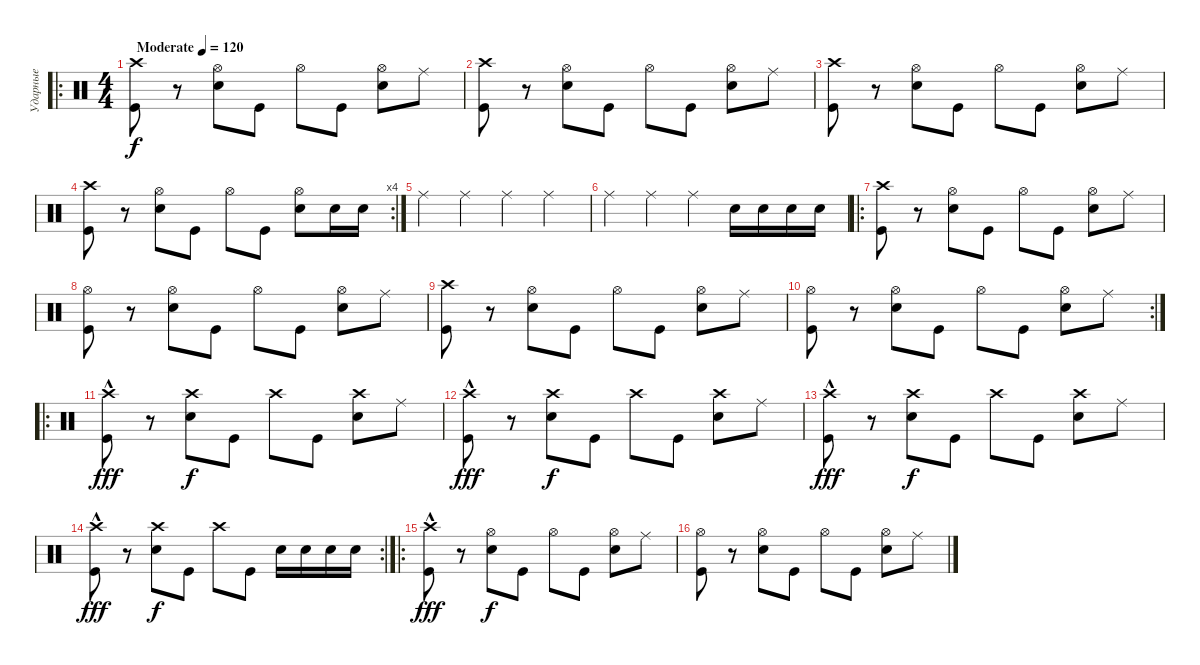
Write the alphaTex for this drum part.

\track ("Ударные" "Ударные") {instrument percussion}
\staff {score}
\articulation defaults
\ro
\ts (4 4)
\tempo (120 "Moderate")
\clef neutral
\ks c
("Kick (hit)" "Crash high (hit)").8{dy f} r.8 ("Snare (hit) 2" "Hi-Hat (open)").8 "Kick (hit)".8 "Hi-Hat (open)".8 "Kick (hit)".8 ("Snare (hit) 2" "Hi-Hat (open)").8 "Ride (middle)".8 |
("Kick (hit)" "Crash high (hit)").8 r.8 ("Snare (hit) 2" "Hi-Hat (open)").8 "Kick (hit)".8 "Hi-Hat (open)".8 "Kick (hit)".8 ("Snare (hit) 2" "Hi-Hat (open)").8 "Ride (middle)".8 |
("Kick (hit)" "Crash high (hit)").8 r.8 ("Snare (hit) 2" "Hi-Hat (open)").8 "Kick (hit)".8 "Hi-Hat (open)".8 "Kick (hit)".8 ("Snare (hit) 2" "Hi-Hat (open)").8 "Ride (middle)".8 |
\rc 4
("Kick (hit)" "Crash high (hit)").8 r.8 ("Snare (hit) 2" "Hi-Hat (open)").8 "Kick (hit)".8 "Hi-Hat (open)".8 "Kick (hit)".8 ("Snare (hit) 2" "Hi-Hat (open)").8 "Snare (hit) 2".16 "Snare (hit) 2".16 |
"Ride (middle)".4 "Ride (middle)".4 "Ride (middle)".4 "Ride (middle)".4 |
"Ride (middle)".4 "Ride (middle)".4 "Ride (middle)".4 "Snare (hit) 2".16 "Snare (hit) 2".16 "Snare (hit) 2".16 "Snare (hit) 2".16 |
\ro
("Kick (hit)" "Crash high (hit)").8 r.8 ("Snare (hit) 2" "Hi-Hat (open)").8 "Kick (hit)".8 "Hi-Hat (open)".8 "Kick (hit)".8 ("Snare (hit) 2" "Hi-Hat (open)").8 "Ride (middle)".8 |
("Kick (hit)" "Hi-Hat (open)").8 r.8 ("Snare (hit) 2" "Hi-Hat (open)").8 "Kick (hit)".8 "Hi-Hat (open)".8 "Kick (hit)".8 ("Snare (hit) 2" "Hi-Hat (open)").8 "Ride (middle)".8 |
("Kick (hit)" "Crash high (hit)").8 r.8 ("Snare (hit) 2" "Hi-Hat (open)").8 "Kick (hit)".8 "Hi-Hat (open)".8 "Kick (hit)".8 ("Snare (hit) 2" "Hi-Hat (open)").8 "Ride (middle)".8 |
\rc 2
("Kick (hit)" "Hi-Hat (open)").8 r.8 ("Snare (hit) 2" "Hi-Hat (open)").8 "Kick (hit)".8 "Hi-Hat (open)".8 "Kick (hit)".8 ("Snare (hit) 2" "Hi-Hat (open)").8 "Ride (middle)".8 |
\ro
("Kick (hit)" "Crash high (hit)"{hac}).8{dy fff} r.8 ("Snare (hit) 2" "Crash high (hit)").8{dy f} "Kick (hit)".8 "Crash high (hit)".8 "Kick (hit)".8 ("Snare (hit) 2" "Crash high (hit)").8 "Ride (middle)".8 |
("Kick (hit)" "Crash high (hit)"{hac}).8{dy fff} r.8 ("Snare (hit) 2" "Crash high (hit)").8{dy f} "Kick (hit)".8 "Crash high (hit)".8 "Kick (hit)".8 ("Snare (hit) 2" "Crash high (hit)").8 "Ride (middle)".8 |
("Kick (hit)" "Crash high (hit)"{hac}).8{dy fff} r.8 ("Snare (hit) 2" "Crash high (hit)").8{dy f} "Kick (hit)".8 "Crash high (hit)".8 "Kick (hit)".8 ("Snare (hit) 2" "Crash high (hit)").8 "Ride (middle)".8 |
\rc 2
("Kick (hit)" "Crash high (hit)"{hac}).8{dy fff} r.8 ("Snare (hit) 2" "Crash high (hit)").8{dy f} "Kick (hit)".8 "Crash high (hit)".8 "Kick (hit)".8 "Snare (hit) 2".16 "Snare (hit) 2".16 "Snare (hit) 2".16 "Snare (hit) 2".16 |
\ro
("Kick (hit)" "Crash high (hit)"{hac}).8{dy fff} r.8 ("Snare (hit) 2" "Hi-Hat (open)").8{dy f} "Kick (hit)".8 "Hi-Hat (open)".8 "Kick (hit)".8 ("Snare (hit) 2" "Hi-Hat (open)").8 "Ride (middle)".8 |
("Kick (hit)" "Hi-Hat (open)").8 r.8 ("Snare (hit) 2" "Hi-Hat (open)").8 "Kick (hit)".8 "Hi-Hat (open)".8 "Kick (hit)".8 ("Snare (hit) 2" "Hi-Hat (open)").8 "Ride (middle)".8
